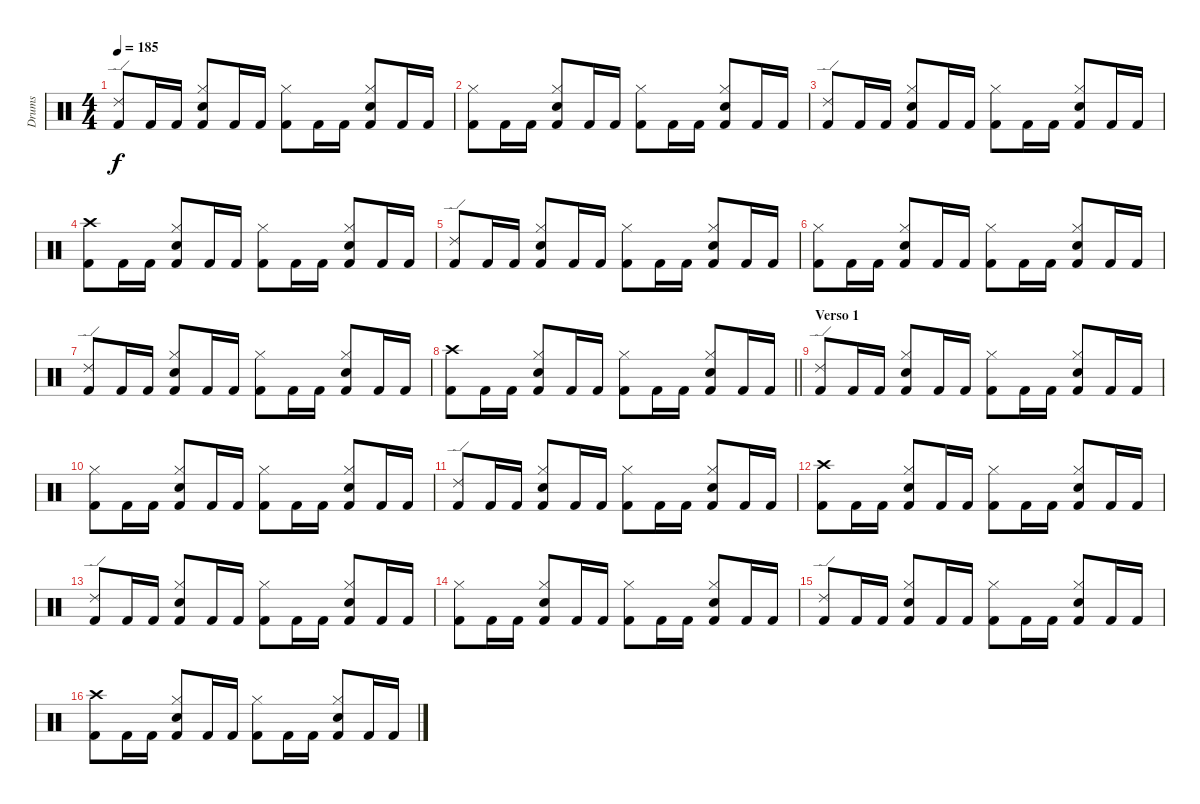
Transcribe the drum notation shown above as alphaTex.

\track ("Drums" "Drums") {instrument percussion}
\staff {score}
\articulation defaults
\ts (4 4)
\tempo 185
\clef neutral
\ks c
("Ride (edge) 2" "Kick (hit) 2").8{dy f} "Kick (hit) 2".16 "Kick (hit) 2".16 ("Hi-Hat (closed)" "Electric Snare (hit)" "Kick (hit) 2").8 "Kick (hit) 2".16 "Kick (hit) 2".16 ("Hi-Hat (closed)" "Kick (hit) 2").8 "Kick (hit) 2".16 "Kick (hit) 2".16 ("Hi-Hat (closed)" "Electric Snare (hit)" "Kick (hit) 2").8 "Kick (hit) 2".16 "Kick (hit) 2".16 |
("Hi-Hat (closed)" "Kick (hit) 2").8 "Kick (hit) 2".16 "Kick (hit) 2".16 ("Hi-Hat (closed)" "Electric Snare (hit)" "Kick (hit) 2").8 "Kick (hit) 2".16 "Kick (hit) 2".16 ("Hi-Hat (closed)" "Kick (hit) 2").8 "Kick (hit) 2".16 "Kick (hit) 2".16 ("Hi-Hat (closed)" "Electric Snare (hit)" "Kick (hit) 2").8 "Kick (hit) 2".16 "Kick (hit) 2".16 |
("Ride (edge) 2" "Kick (hit) 2").8 "Kick (hit) 2".16 "Kick (hit) 2".16 ("Hi-Hat (closed)" "Electric Snare (hit)" "Kick (hit) 2").8 "Kick (hit) 2".16 "Kick (hit) 2".16 ("Hi-Hat (closed)" "Kick (hit) 2").8 "Kick (hit) 2".16 "Kick (hit) 2".16 ("Hi-Hat (closed)" "Electric Snare (hit)" "Kick (hit) 2").8 "Kick (hit) 2".16 "Kick (hit) 2".16 |
("Crash high (hit)" "Kick (hit) 2").8 "Kick (hit) 2".16 "Kick (hit) 2".16 ("Hi-Hat (closed)" "Electric Snare (hit)" "Kick (hit) 2").8 "Kick (hit) 2".16 "Kick (hit) 2".16 ("Hi-Hat (closed)" "Kick (hit) 2").8 "Kick (hit) 2".16 "Kick (hit) 2".16 ("Hi-Hat (closed)" "Electric Snare (hit)" "Kick (hit) 2").8 "Kick (hit) 2".16 "Kick (hit) 2".16 |
("Ride (edge) 2" "Kick (hit) 2").8 "Kick (hit) 2".16 "Kick (hit) 2".16 ("Hi-Hat (closed)" "Electric Snare (hit)" "Kick (hit) 2").8 "Kick (hit) 2".16 "Kick (hit) 2".16 ("Hi-Hat (closed)" "Kick (hit) 2").8 "Kick (hit) 2".16 "Kick (hit) 2".16 ("Hi-Hat (closed)" "Electric Snare (hit)" "Kick (hit) 2").8 "Kick (hit) 2".16 "Kick (hit) 2".16 |
("Hi-Hat (closed)" "Kick (hit) 2").8 "Kick (hit) 2".16 "Kick (hit) 2".16 ("Hi-Hat (closed)" "Electric Snare (hit)" "Kick (hit) 2").8 "Kick (hit) 2".16 "Kick (hit) 2".16 ("Hi-Hat (closed)" "Kick (hit) 2").8 "Kick (hit) 2".16 "Kick (hit) 2".16 ("Hi-Hat (closed)" "Electric Snare (hit)" "Kick (hit) 2").8 "Kick (hit) 2".16 "Kick (hit) 2".16 |
("Ride (edge) 2" "Kick (hit) 2").8 "Kick (hit) 2".16 "Kick (hit) 2".16 ("Hi-Hat (closed)" "Electric Snare (hit)" "Kick (hit) 2").8 "Kick (hit) 2".16 "Kick (hit) 2".16 ("Hi-Hat (closed)" "Kick (hit) 2").8 "Kick (hit) 2".16 "Kick (hit) 2".16 ("Hi-Hat (closed)" "Electric Snare (hit)" "Kick (hit) 2").8 "Kick (hit) 2".16 "Kick (hit) 2".16 |
\barLineRight lightlight
("Crash high (hit)" "Kick (hit) 2").8 "Kick (hit) 2".16 "Kick (hit) 2".16 ("Hi-Hat (closed)" "Electric Snare (hit)" "Kick (hit) 2").8 "Kick (hit) 2".16 "Kick (hit) 2".16 ("Hi-Hat (closed)" "Kick (hit) 2").8 "Kick (hit) 2".16 "Kick (hit) 2".16 ("Hi-Hat (closed)" "Electric Snare (hit)" "Kick (hit) 2").8 "Kick (hit) 2".16 "Kick (hit) 2".16 |
\section ("" "Verso 1")
("Ride (edge) 2" "Kick (hit) 2").8 "Kick (hit) 2".16 "Kick (hit) 2".16 ("Hi-Hat (closed)" "Electric Snare (hit)" "Kick (hit) 2").8 "Kick (hit) 2".16 "Kick (hit) 2".16 ("Hi-Hat (closed)" "Kick (hit) 2").8 "Kick (hit) 2".16 "Kick (hit) 2".16 ("Hi-Hat (closed)" "Electric Snare (hit)" "Kick (hit) 2").8 "Kick (hit) 2".16 "Kick (hit) 2".16 |
("Hi-Hat (closed)" "Kick (hit) 2").8 "Kick (hit) 2".16 "Kick (hit) 2".16 ("Hi-Hat (closed)" "Electric Snare (hit)" "Kick (hit) 2").8 "Kick (hit) 2".16 "Kick (hit) 2".16 ("Hi-Hat (closed)" "Kick (hit) 2").8 "Kick (hit) 2".16 "Kick (hit) 2".16 ("Hi-Hat (closed)" "Electric Snare (hit)" "Kick (hit) 2").8 "Kick (hit) 2".16 "Kick (hit) 2".16 |
("Ride (edge) 2" "Kick (hit) 2").8 "Kick (hit) 2".16 "Kick (hit) 2".16 ("Hi-Hat (closed)" "Electric Snare (hit)" "Kick (hit) 2").8 "Kick (hit) 2".16 "Kick (hit) 2".16 ("Hi-Hat (closed)" "Kick (hit) 2").8 "Kick (hit) 2".16 "Kick (hit) 2".16 ("Hi-Hat (closed)" "Electric Snare (hit)" "Kick (hit) 2").8 "Kick (hit) 2".16 "Kick (hit) 2".16 |
("Crash high (hit)" "Kick (hit) 2").8 "Kick (hit) 2".16 "Kick (hit) 2".16 ("Hi-Hat (closed)" "Electric Snare (hit)" "Kick (hit) 2").8 "Kick (hit) 2".16 "Kick (hit) 2".16 ("Hi-Hat (closed)" "Kick (hit) 2").8 "Kick (hit) 2".16 "Kick (hit) 2".16 ("Hi-Hat (closed)" "Electric Snare (hit)" "Kick (hit) 2").8 "Kick (hit) 2".16 "Kick (hit) 2".16 |
("Ride (edge) 2" "Kick (hit) 2").8 "Kick (hit) 2".16 "Kick (hit) 2".16 ("Hi-Hat (closed)" "Electric Snare (hit)" "Kick (hit) 2").8 "Kick (hit) 2".16 "Kick (hit) 2".16 ("Hi-Hat (closed)" "Kick (hit) 2").8 "Kick (hit) 2".16 "Kick (hit) 2".16 ("Hi-Hat (closed)" "Electric Snare (hit)" "Kick (hit) 2").8 "Kick (hit) 2".16 "Kick (hit) 2".16 |
("Hi-Hat (closed)" "Kick (hit) 2").8 "Kick (hit) 2".16 "Kick (hit) 2".16 ("Hi-Hat (closed)" "Electric Snare (hit)" "Kick (hit) 2").8 "Kick (hit) 2".16 "Kick (hit) 2".16 ("Hi-Hat (closed)" "Kick (hit) 2").8 "Kick (hit) 2".16 "Kick (hit) 2".16 ("Hi-Hat (closed)" "Electric Snare (hit)" "Kick (hit) 2").8 "Kick (hit) 2".16 "Kick (hit) 2".16 |
("Ride (edge) 2" "Kick (hit) 2").8 "Kick (hit) 2".16 "Kick (hit) 2".16 ("Hi-Hat (closed)" "Electric Snare (hit)" "Kick (hit) 2").8 "Kick (hit) 2".16 "Kick (hit) 2".16 ("Hi-Hat (closed)" "Kick (hit) 2").8 "Kick (hit) 2".16 "Kick (hit) 2".16 ("Hi-Hat (closed)" "Electric Snare (hit)" "Kick (hit) 2").8 "Kick (hit) 2".16 "Kick (hit) 2".16 |
("Crash high (hit)" "Kick (hit) 2").8 "Kick (hit) 2".16 "Kick (hit) 2".16 ("Hi-Hat (closed)" "Electric Snare (hit)" "Kick (hit) 2").8 "Kick (hit) 2".16 "Kick (hit) 2".16 ("Hi-Hat (closed)" "Kick (hit) 2").8 "Kick (hit) 2".16 "Kick (hit) 2".16 ("Hi-Hat (closed)" "Electric Snare (hit)" "Kick (hit) 2").8 "Kick (hit) 2".16 "Kick (hit) 2".16
